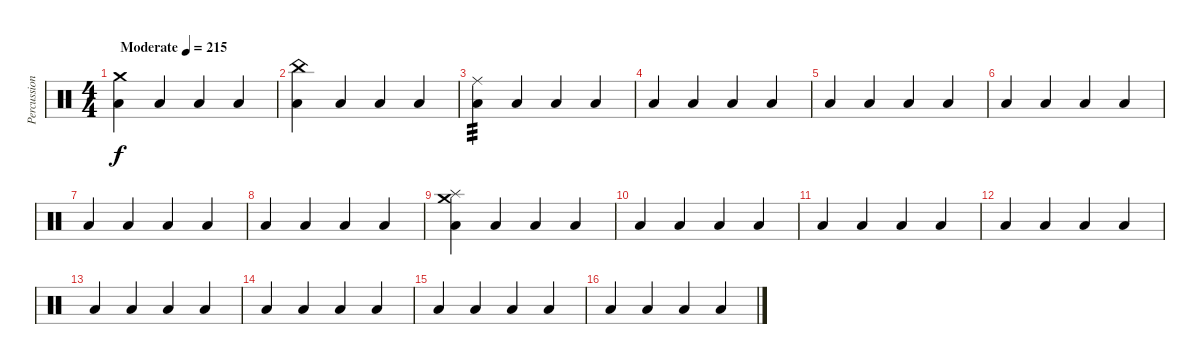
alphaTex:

\track ("Percussion" "Percussion") {instrument percussion}
\staff {score}
\articulation defaults
\ts (4 4)
\tempo (215 "Moderate")
\tempo 195
\tempo (215 "Moderate")
\clef neutral
\ks c
("Crash medium (hit)" "Low Tom (hit)").4{dy f} "Low Tom (hit)".4 "Low Tom (hit)".4 "Low Tom (hit)".4 |
("China (hit)" "Low Tom (hit)").4 "Low Tom (hit)".4 "Low Tom (hit)".4 "Low Tom (hit)".4 |
("Ride (middle)" "Low Tom (hit)").4{tp 3} "Low Tom (hit)".4 "Low Tom (hit)".4 "Low Tom (hit)".4 |
"Low Tom (hit)".4 "Low Tom (hit)".4 "Low Tom (hit)".4 "Low Tom (hit)".4 |
"Low Tom (hit)".4 "Low Tom (hit)".4 "Low Tom (hit)".4 "Low Tom (hit)".4 |
"Low Tom (hit)".4 "Low Tom (hit)".4 "Low Tom (hit)".4 "Low Tom (hit)".4 |
"Low Tom (hit)".4 "Low Tom (hit)".4 "Low Tom (hit)".4 "Low Tom (hit)".4 |
"Low Tom (hit)".4 "Low Tom (hit)".4 "Low Tom (hit)".4 "Low Tom (hit)".4 |
("Crash medium (hit)" "Splash (hit)" "Low Tom (hit)").4 "Low Tom (hit)".4 "Low Tom (hit)".4 "Low Tom (hit)".4 |
"Low Tom (hit)".4 "Low Tom (hit)".4 "Low Tom (hit)".4 "Low Tom (hit)".4 |
"Low Tom (hit)".4 "Low Tom (hit)".4 "Low Tom (hit)".4 "Low Tom (hit)".4 |
"Low Tom (hit)".4 "Low Tom (hit)".4 "Low Tom (hit)".4 "Low Tom (hit)".4 |
"Low Tom (hit)".4 "Low Tom (hit)".4 "Low Tom (hit)".4 "Low Tom (hit)".4 |
"Low Tom (hit)".4 "Low Tom (hit)".4 "Low Tom (hit)".4 "Low Tom (hit)".4 |
"Low Tom (hit)".4 "Low Tom (hit)".4 "Low Tom (hit)".4 "Low Tom (hit)".4 |
"Low Tom (hit)".4 "Low Tom (hit)".4 "Low Tom (hit)".4 "Low Tom (hit)".4
